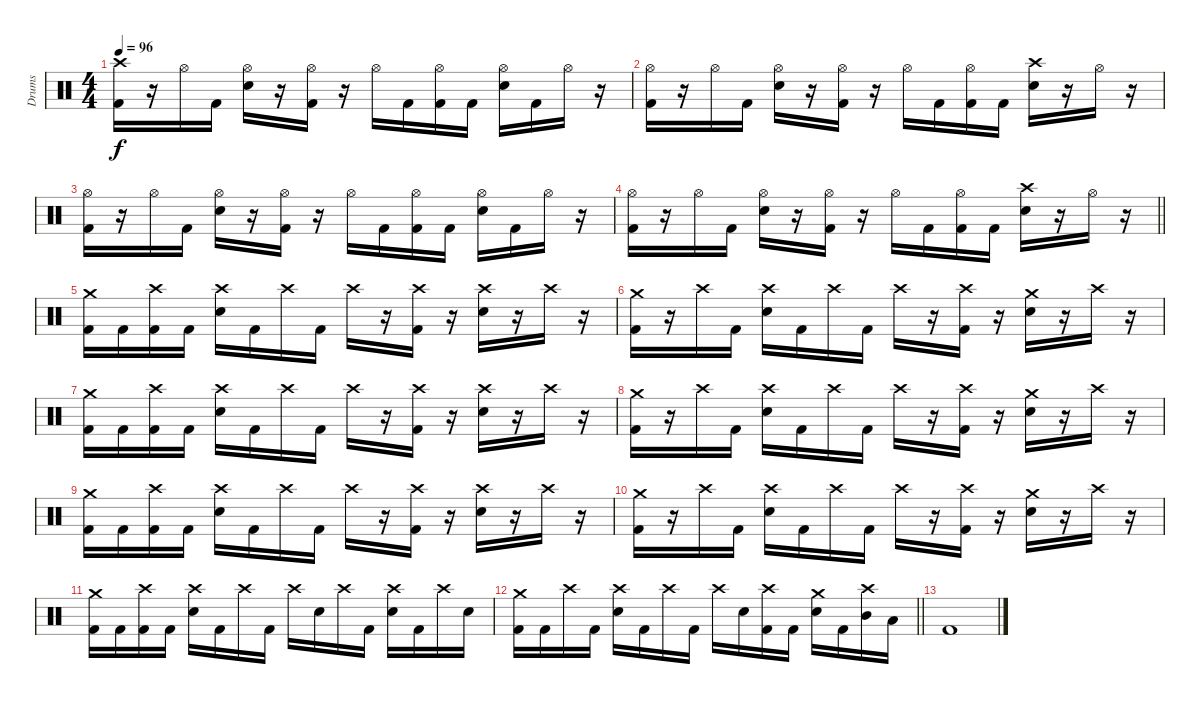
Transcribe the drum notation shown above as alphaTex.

\track ("Drums" "Drums") {instrument percussion}
\staff {score}
\articulation defaults
\ts (4 4)
\tempo 96
\clef neutral
\ks c
("Crash high (hit)" "Kick (hit) 2").16{dy f} r.16 "Hi-Hat (open)".16 "Kick (hit) 2".16 ("Hi-Hat (open)" "Electric Snare (hit)").16 r.16 ("Hi-Hat (open)" "Kick (hit) 2").16 r.16 "Hi-Hat (open)".16 "Kick (hit) 2".16 ("Hi-Hat (open)" "Kick (hit) 2").16 "Kick (hit) 2".16 ("Hi-Hat (open)" "Electric Snare (hit)").16 "Kick (hit) 2".16 "Hi-Hat (open)".16 r.16 |
("Hi-Hat (open)" "Kick (hit) 2").16 r.16 "Hi-Hat (open)".16 "Kick (hit) 2".16 ("Hi-Hat (open)" "Electric Snare (hit)").16 r.16 ("Hi-Hat (open)" "Kick (hit) 2").16 r.16 "Hi-Hat (open)".16 "Kick (hit) 2".16 ("Hi-Hat (open)" "Kick (hit) 2").16 "Kick (hit) 2".16 ("Crash high (hit)" "Electric Snare (hit)").16 r.16 "Hi-Hat (open)".16 r.16 |
("Hi-Hat (open)" "Kick (hit) 2").16 r.16 "Hi-Hat (open)".16 "Kick (hit) 2".16 ("Hi-Hat (open)" "Electric Snare (hit)").16 r.16 ("Hi-Hat (open)" "Kick (hit) 2").16 r.16 "Hi-Hat (open)".16 "Kick (hit) 2".16 ("Hi-Hat (open)" "Kick (hit) 2").16 "Kick (hit) 2".16 ("Hi-Hat (open)" "Electric Snare (hit)").16 "Kick (hit) 2".16 "Hi-Hat (open)".16 r.16 |
\barLineRight lightlight
("Hi-Hat (open)" "Kick (hit) 2").16 r.16 "Hi-Hat (open)".16 "Kick (hit) 2".16 ("Hi-Hat (open)" "Electric Snare (hit)").16 r.16 ("Hi-Hat (open)" "Kick (hit) 2").16 r.16 "Hi-Hat (open)".16 "Kick (hit) 2".16 ("Hi-Hat (open)" "Kick (hit) 2").16 "Kick (hit) 2".16 ("Crash high (hit)" "Electric Snare (hit)").16 r.16 "Hi-Hat (open)".16 r.16 |
("Kick (hit) 2" "Crash medium (hit)").16 "Kick (hit) 2".16 ("Kick (hit) 2" "Crash high (hit)").16 "Kick (hit) 2".16 ("Electric Snare (hit)" "Crash high (hit)").16 "Kick (hit) 2".16 "Crash high (hit)".16 "Kick (hit) 2".16 "Crash high (hit)".16 r.16 ("Kick (hit) 2" "Crash high (hit)").16 r.16 ("Electric Snare (hit)" "Crash high (hit)").16 r.16 "Crash high (hit)".16 r.16 |
("Kick (hit) 2" "Crash medium (hit)").16 r.16 "Crash high (hit)".16 "Kick (hit) 2".16 ("Electric Snare (hit)" "Crash high (hit)").16 "Kick (hit) 2".16 "Crash high (hit)".16 "Kick (hit) 2".16 "Crash high (hit)".16 r.16 ("Kick (hit) 2" "Crash high (hit)").16 r.16 ("Electric Snare (hit)" "Crash medium (hit)").16 r.16 "Crash high (hit)".16 r.16 |
("Kick (hit) 2" "Crash medium (hit)").16 "Kick (hit) 2".16 ("Kick (hit) 2" "Crash high (hit)").16 "Kick (hit) 2".16 ("Electric Snare (hit)" "Crash high (hit)").16 "Kick (hit) 2".16 "Crash high (hit)".16 "Kick (hit) 2".16 "Crash high (hit)".16 r.16 ("Kick (hit) 2" "Crash high (hit)").16 r.16 ("Electric Snare (hit)" "Crash high (hit)").16 r.16 "Crash high (hit)".16 r.16 |
("Kick (hit) 2" "Crash medium (hit)").16 r.16 "Crash high (hit)".16 "Kick (hit) 2".16 ("Electric Snare (hit)" "Crash high (hit)").16 "Kick (hit) 2".16 "Crash high (hit)".16 "Kick (hit) 2".16 "Crash high (hit)".16 r.16 ("Kick (hit) 2" "Crash high (hit)").16 r.16 ("Electric Snare (hit)" "Crash medium (hit)").16 r.16 "Crash high (hit)".16 r.16 |
("Kick (hit) 2" "Crash medium (hit)").16 "Kick (hit) 2".16 ("Kick (hit) 2" "Crash high (hit)").16 "Kick (hit) 2".16 ("Electric Snare (hit)" "Crash high (hit)").16 "Kick (hit) 2".16 "Crash high (hit)".16 "Kick (hit) 2".16 "Crash high (hit)".16 r.16 ("Kick (hit) 2" "Crash high (hit)").16 r.16 ("Electric Snare (hit)" "Crash high (hit)").16 r.16 "Crash high (hit)".16 r.16 |
("Kick (hit) 2" "Crash medium (hit)").16 r.16 "Crash high (hit)".16 "Kick (hit) 2".16 ("Electric Snare (hit)" "Crash high (hit)").16 "Kick (hit) 2".16 "Crash high (hit)".16 "Kick (hit) 2".16 "Crash high (hit)".16 r.16 ("Kick (hit) 2" "Crash high (hit)").16 r.16 ("Electric Snare (hit)" "Crash medium (hit)").16 r.16 "Crash high (hit)".16 r.16 |
("Kick (hit) 2" "Crash medium (hit)").16 "Kick (hit) 2".16 ("Kick (hit) 2" "Crash high (hit)").16 "Kick (hit) 2".16 ("Electric Snare (hit)" "Crash high (hit)").16 "Kick (hit) 2".16 "Crash high (hit)".16 "Kick (hit) 2".16 "Crash high (hit)".16 "Electric Snare (hit)".16 "Crash high (hit)".16 "Kick (hit) 2".16 ("Electric Snare (hit)" "Crash high (hit)").16 "Kick (hit) 2".16 "Crash high (hit)".16 "Electric Snare (hit)".16 |
\barLineRight lightlight
("Kick (hit) 2" "Crash medium (hit)").16 "Kick (hit) 2".16 "Crash high (hit)".16 "Kick (hit) 2".16 ("Electric Snare (hit)" "Crash high (hit)").16 "Kick (hit) 2".16 "Crash high (hit)".16 "Kick (hit) 2".16 "Crash high (hit)".16 "Electric Snare (hit)".16 ("Kick (hit) 2" "Crash high (hit)").16 "Kick (hit) 2".16 ("Electric Snare (hit)" "Crash medium (hit)").16 "Kick (hit) 2".16 ("Mid Tom (hit)" "Crash high (hit)").16 "Low Tom (hit)".16 |
"Kick (hit) 2".1
